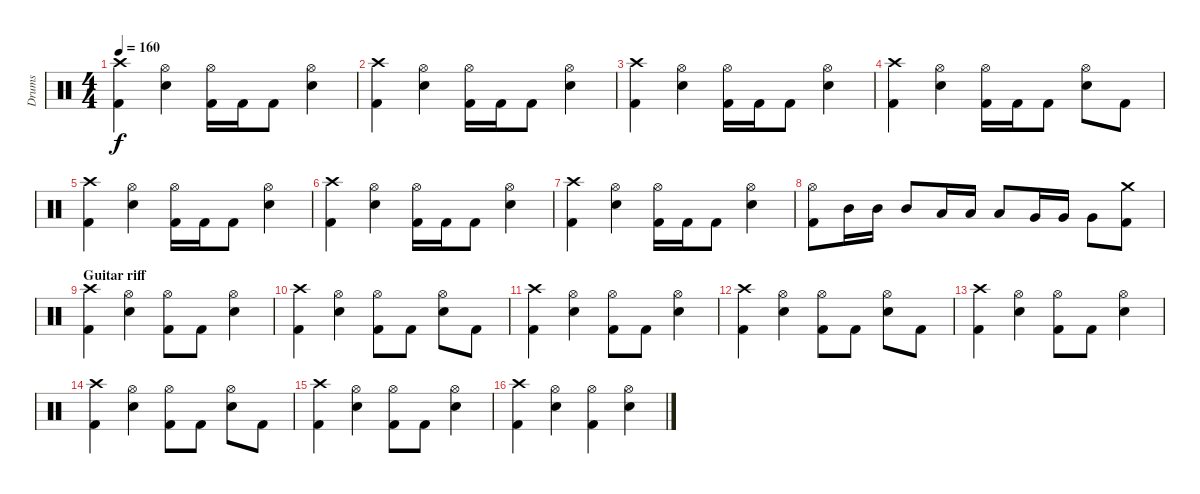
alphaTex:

\track ("Drums" "Drums") {instrument percussion}
\staff {score}
\articulation defaults
\ts (4 4)
\tempo 160
\clef neutral
\ks c
("Kick (hit) 2" "Crash high (hit)").4{dy f} ("Electric Snare (hit)" "Hi-Hat (open)").4 ("Kick (hit) 2" "Hi-Hat (open)").16 "Kick (hit) 2".16 "Kick (hit) 2".8 ("Electric Snare (hit)" "Hi-Hat (open)").4 |
("Kick (hit) 2" "Crash high (hit)").4 ("Electric Snare (hit)" "Hi-Hat (open)").4 ("Kick (hit) 2" "Hi-Hat (open)").16 "Kick (hit) 2".16 "Kick (hit) 2".8 ("Electric Snare (hit)" "Hi-Hat (open)").4 |
("Kick (hit) 2" "Crash high (hit)").4 ("Electric Snare (hit)" "Hi-Hat (open)").4 ("Kick (hit) 2" "Hi-Hat (open)").16 "Kick (hit) 2".16 "Kick (hit) 2".8 ("Electric Snare (hit)" "Hi-Hat (open)").4 |
("Kick (hit) 2" "Crash high (hit)").4 ("Electric Snare (hit)" "Hi-Hat (open)").4 ("Kick (hit) 2" "Hi-Hat (open)").16 "Kick (hit) 2".16 "Kick (hit) 2".8 ("Electric Snare (hit)" "Hi-Hat (open)").8 "Kick (hit) 2".8 |
("Kick (hit) 2" "Crash high (hit)").4 ("Electric Snare (hit)" "Hi-Hat (open)").4 ("Kick (hit) 2" "Hi-Hat (open)").16 "Kick (hit) 2".16 "Kick (hit) 2".8 ("Electric Snare (hit)" "Hi-Hat (open)").4 |
("Kick (hit) 2" "Crash high (hit)").4 ("Electric Snare (hit)" "Hi-Hat (open)").4 ("Kick (hit) 2" "Hi-Hat (open)").16 "Kick (hit) 2".16 "Kick (hit) 2".8 ("Electric Snare (hit)" "Hi-Hat (open)").4 |
("Kick (hit) 2" "Crash high (hit)").4 ("Electric Snare (hit)" "Hi-Hat (open)").4 ("Kick (hit) 2" "Hi-Hat (open)").16 "Kick (hit) 2".16 "Kick (hit) 2".8 ("Electric Snare (hit)" "Hi-Hat (open)").4 |
("Kick (hit) 2" "Hi-Hat (open)").8 "Mid Tom (hit)".16 "Mid Tom (hit)".16 "Mid Tom (hit)".8 "Low Tom (hit)".16 "Low Tom (hit)".16 "Low Tom (hit)".8 "Very Low Tom (hit)".16 "Very Low Tom (hit)".16 "Very Low Tom (hit)".8 ("Kick (hit) 2" "Crash medium (hit)").8 |
\section ("" "Guitar riff")
("Kick (hit) 2" "Crash high (hit)").4 ("Electric Snare (hit)" "Hi-Hat (open)").4 ("Kick (hit) 2" "Hi-Hat (open)").8 "Kick (hit) 2".8 ("Electric Snare (hit)" "Hi-Hat (open)").4 |
("Kick (hit) 2" "Crash high (hit)").4 ("Electric Snare (hit)" "Hi-Hat (open)").4 ("Kick (hit) 2" "Hi-Hat (open)").8 "Kick (hit) 2".8 ("Electric Snare (hit)" "Hi-Hat (open)").8 "Kick (hit) 2".8 |
("Kick (hit) 2" "Crash high (hit)").4 ("Electric Snare (hit)" "Hi-Hat (open)").4 ("Kick (hit) 2" "Hi-Hat (open)").8 "Kick (hit) 2".8 ("Electric Snare (hit)" "Hi-Hat (open)").4 |
("Kick (hit) 2" "Crash high (hit)").4 ("Electric Snare (hit)" "Hi-Hat (open)").4 ("Kick (hit) 2" "Hi-Hat (open)").8 "Kick (hit) 2".8 ("Electric Snare (hit)" "Hi-Hat (open)").8 "Kick (hit) 2".8 |
("Kick (hit) 2" "Crash high (hit)").4 ("Electric Snare (hit)" "Hi-Hat (open)").4 ("Kick (hit) 2" "Hi-Hat (open)").8 "Kick (hit) 2".8 ("Electric Snare (hit)" "Hi-Hat (open)").4 |
("Kick (hit) 2" "Crash high (hit)").4 ("Electric Snare (hit)" "Hi-Hat (open)").4 ("Kick (hit) 2" "Hi-Hat (open)").8 "Kick (hit) 2".8 ("Electric Snare (hit)" "Hi-Hat (open)").8 "Kick (hit) 2".8 |
("Kick (hit) 2" "Crash high (hit)").4 ("Electric Snare (hit)" "Hi-Hat (open)").4 ("Kick (hit) 2" "Hi-Hat (open)").8 "Kick (hit) 2".8 ("Electric Snare (hit)" "Hi-Hat (open)").4 |
("Kick (hit) 2" "Crash high (hit)").4 ("Electric Snare (hit)" "Hi-Hat (open)").4 ("Kick (hit) 2" "Hi-Hat (open)").4 ("Electric Snare (hit)" "Hi-Hat (open)").4
